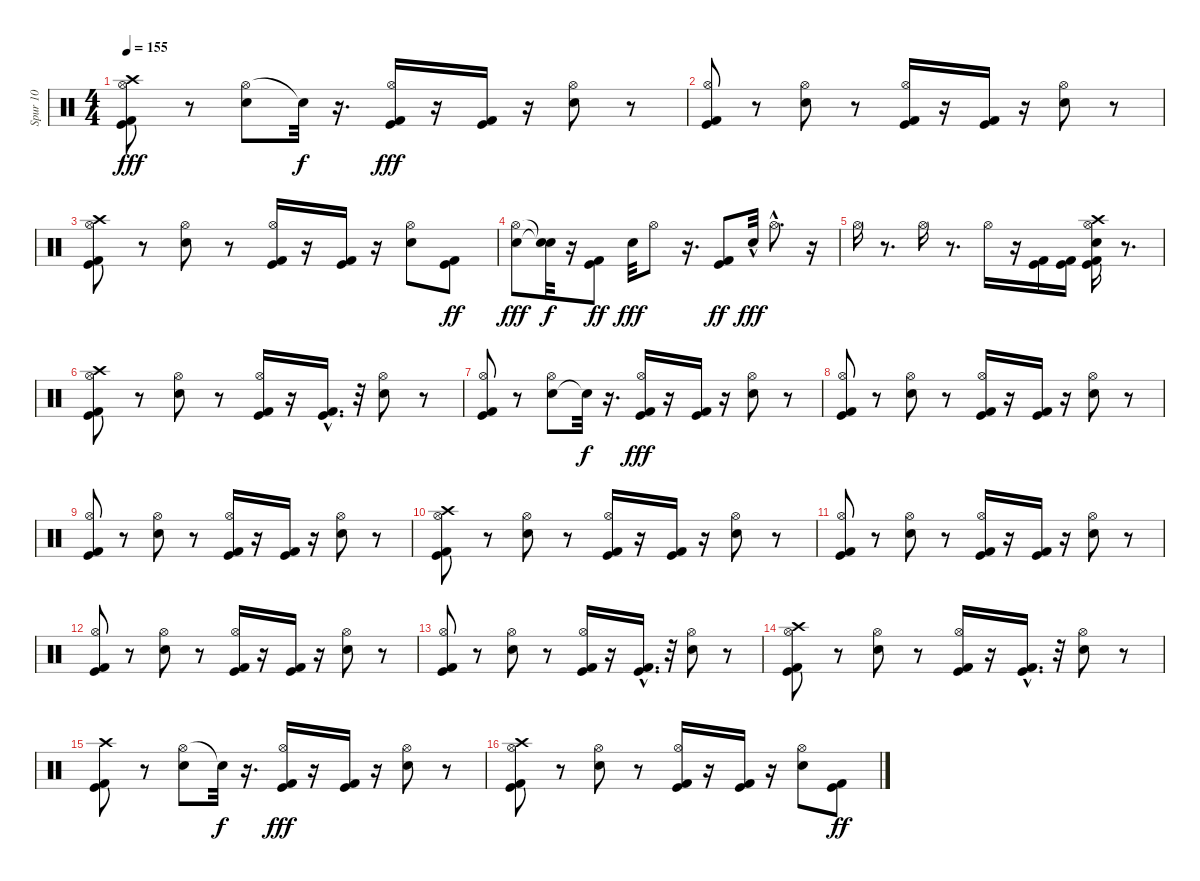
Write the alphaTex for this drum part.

\track ("Spur 10" "Spur 10") {instrument percussion}
\staff {score}
\articulation defaults
\ts (4 4)
\tempo 155
\clef neutral
\ks c
("Crash high (hit)" "Kick (hit)" "Hi-Hat (open)" "Kick (hit) 2").8{dy fff} r.8 ("Hi-Hat (open)" "Electric Snare (hit)").8 "Snare (hit)"{t}.32{dy f} r.16{d} ("Kick (hit)" "Hi-Hat (open)" "Kick (hit) 2").16{dy fff} r.16 ("Kick (hit)" "Kick (hit) 2").16 r.16 ("Hi-Hat (open)" "Electric Snare (hit)").8 r.8 |
("Kick (hit)" "Hi-Hat (open)" "Kick (hit) 2").8 r.8 ("Hi-Hat (open)" "Electric Snare (hit)").8 r.8 ("Kick (hit)" "Hi-Hat (open)" "Kick (hit) 2").16 r.16 ("Kick (hit)" "Kick (hit) 2").16 r.16 ("Hi-Hat (open)" "Electric Snare (hit)").8 r.8 |
("Crash high (hit)" "Kick (hit)" "Hi-Hat (open)" "Kick (hit) 2").8 r.8 ("Hi-Hat (open)" "Electric Snare (hit)").8 r.8 ("Kick (hit)" "Hi-Hat (open)" "Kick (hit) 2").16 r.16 ("Kick (hit)" "Kick (hit) 2").16 r.16 ("Hi-Hat (open)" "Electric Snare (hit)").8 ("Kick (hit)" "Kick (hit) 2").8{dy ff} |
("Electric Snare (hit)" "Hi-Hat (open)").8{dy fff} ("Snare (hit)"{t} "Snare (hit)"{t}).32{dy f} r.16 ("Kick (hit)" "Kick (hit) 2").8{dy ff} "Electric Snare (hit)".32{dy fff} "Hi-Hat (open)".8 r.16{d} ("Kick (hit)" "Kick (hit) 2").8{dy ff} "Electric Snare (hit)"{hac}.32{dy fff} "Hi-Hat (open)"{hac}.8{d} r.16 |
"Hi-Hat (open)".16 r.8{d} "Hi-Hat (open)".16 r.8{d} "Hi-Hat (open)".16 r.16 ("Kick (hit) 2" "Kick (hit)").16 ("Kick (hit) 2" "Kick (hit)").16 ("Kick (hit) 2" "Crash high (hit)" "Electric Snare (hit)" "Kick (hit)" "Hi-Hat (open)").16 r.8{d} |
("Kick (hit)" "Kick (hit) 2" "Hi-Hat (open)" "Crash high (hit)").8 r.8 ("Hi-Hat (open)" "Electric Snare (hit)").8 r.8 ("Kick (hit)" "Hi-Hat (open)" "Kick (hit) 2").16 r.16 ("Kick (hit)" "Kick (hit) 2"{hac}).16{d} r.32 ("Hi-Hat (open)" "Electric Snare (hit)").8 r.8 |
("Kick (hit) 2" "Hi-Hat (open)" "Kick (hit)").8 r.8 ("Electric Snare (hit)" "Hi-Hat (open)").8 "Snare (hit)"{t}.32{dy f} r.16{d} ("Kick (hit) 2" "Hi-Hat (open)" "Kick (hit)").16{dy fff} r.16 ("Kick (hit) 2" "Kick (hit)").16 r.16 ("Electric Snare (hit)" "Hi-Hat (open)").8 r.8 |
("Kick (hit) 2" "Hi-Hat (open)" "Kick (hit)").8 r.8 ("Electric Snare (hit)" "Hi-Hat (open)").8 r.8 ("Kick (hit) 2" "Hi-Hat (open)" "Kick (hit)").16 r.16 ("Kick (hit) 2" "Kick (hit)").16 r.16 ("Hi-Hat (open)" "Electric Snare (hit)").8 r.8 |
("Hi-Hat (open)" "Kick (hit)" "Kick (hit) 2").8 r.8 ("Hi-Hat (open)" "Electric Snare (hit)").8 r.8 ("Kick (hit) 2" "Hi-Hat (open)" "Kick (hit)").16 r.16 ("Kick (hit)" "Kick (hit) 2").16 r.16 ("Hi-Hat (open)" "Electric Snare (hit)").8 r.8 |
("Crash high (hit)" "Hi-Hat (open)" "Kick (hit)" "Kick (hit) 2").8 r.8 ("Hi-Hat (open)" "Electric Snare (hit)").8 r.8 ("Hi-Hat (open)" "Kick (hit)" "Kick (hit) 2").16 r.16 ("Kick (hit)" "Kick (hit) 2").16 r.16 ("Hi-Hat (open)" "Electric Snare (hit)").8 r.8 |
("Hi-Hat (open)" "Kick (hit)" "Kick (hit) 2").8 r.8 ("Hi-Hat (open)" "Electric Snare (hit)").8 r.8 ("Hi-Hat (open)" "Kick (hit)" "Kick (hit) 2").16 r.16 ("Kick (hit)" "Kick (hit) 2").16 r.16 ("Hi-Hat (open)" "Electric Snare (hit)").8 r.8 |
("Hi-Hat (open)" "Kick (hit)" "Kick (hit) 2").8 r.8 ("Hi-Hat (open)" "Electric Snare (hit)").8 r.8 ("Hi-Hat (open)" "Kick (hit)" "Kick (hit) 2").16 r.16 ("Kick (hit)" "Kick (hit) 2").16 r.16 ("Hi-Hat (open)" "Electric Snare (hit)").8 r.8 |
("Hi-Hat (open)" "Kick (hit)" "Kick (hit) 2").8 r.8 ("Hi-Hat (open)" "Electric Snare (hit)").8 r.8 ("Hi-Hat (open)" "Kick (hit)" "Kick (hit) 2").16 r.16 ("Kick (hit)"{hac} "Kick (hit) 2"{hac}).16{d} r.32 ("Hi-Hat (open)" "Electric Snare (hit)").8 r.8 |
("Crash high (hit)" "Hi-Hat (open)" "Kick (hit)" "Kick (hit) 2").8 r.8 ("Hi-Hat (open)" "Electric Snare (hit)").8 r.8 ("Hi-Hat (open)" "Kick (hit)" "Kick (hit) 2").16 r.16 ("Kick (hit)"{hac} "Kick (hit) 2"{hac}).16{d} r.32 ("Hi-Hat (open)" "Electric Snare (hit)").8 r.8 |
("Kick (hit) 2" "Kick (hit)" "Crash high (hit)").8 r.8 ("Hi-Hat (open)" "Electric Snare (hit)").8 "Snare (hit)"{t}.32{dy f} r.16{d} ("Kick (hit)" "Hi-Hat (open)" "Kick (hit) 2").16{dy fff} r.16 ("Kick (hit)" "Kick (hit) 2").16 r.16 ("Hi-Hat (open)" "Electric Snare (hit)").8 r.8 |
("Crash high (hit)" "Kick (hit)" "Hi-Hat (open)" "Kick (hit) 2").8 r.8 ("Hi-Hat (open)" "Electric Snare (hit)").8 r.8 ("Kick (hit)" "Hi-Hat (open)" "Kick (hit) 2").16 r.16 ("Kick (hit)" "Kick (hit) 2").16 r.16 ("Hi-Hat (open)" "Electric Snare (hit)").8 ("Kick (hit)" "Kick (hit) 2").8{dy ff}
